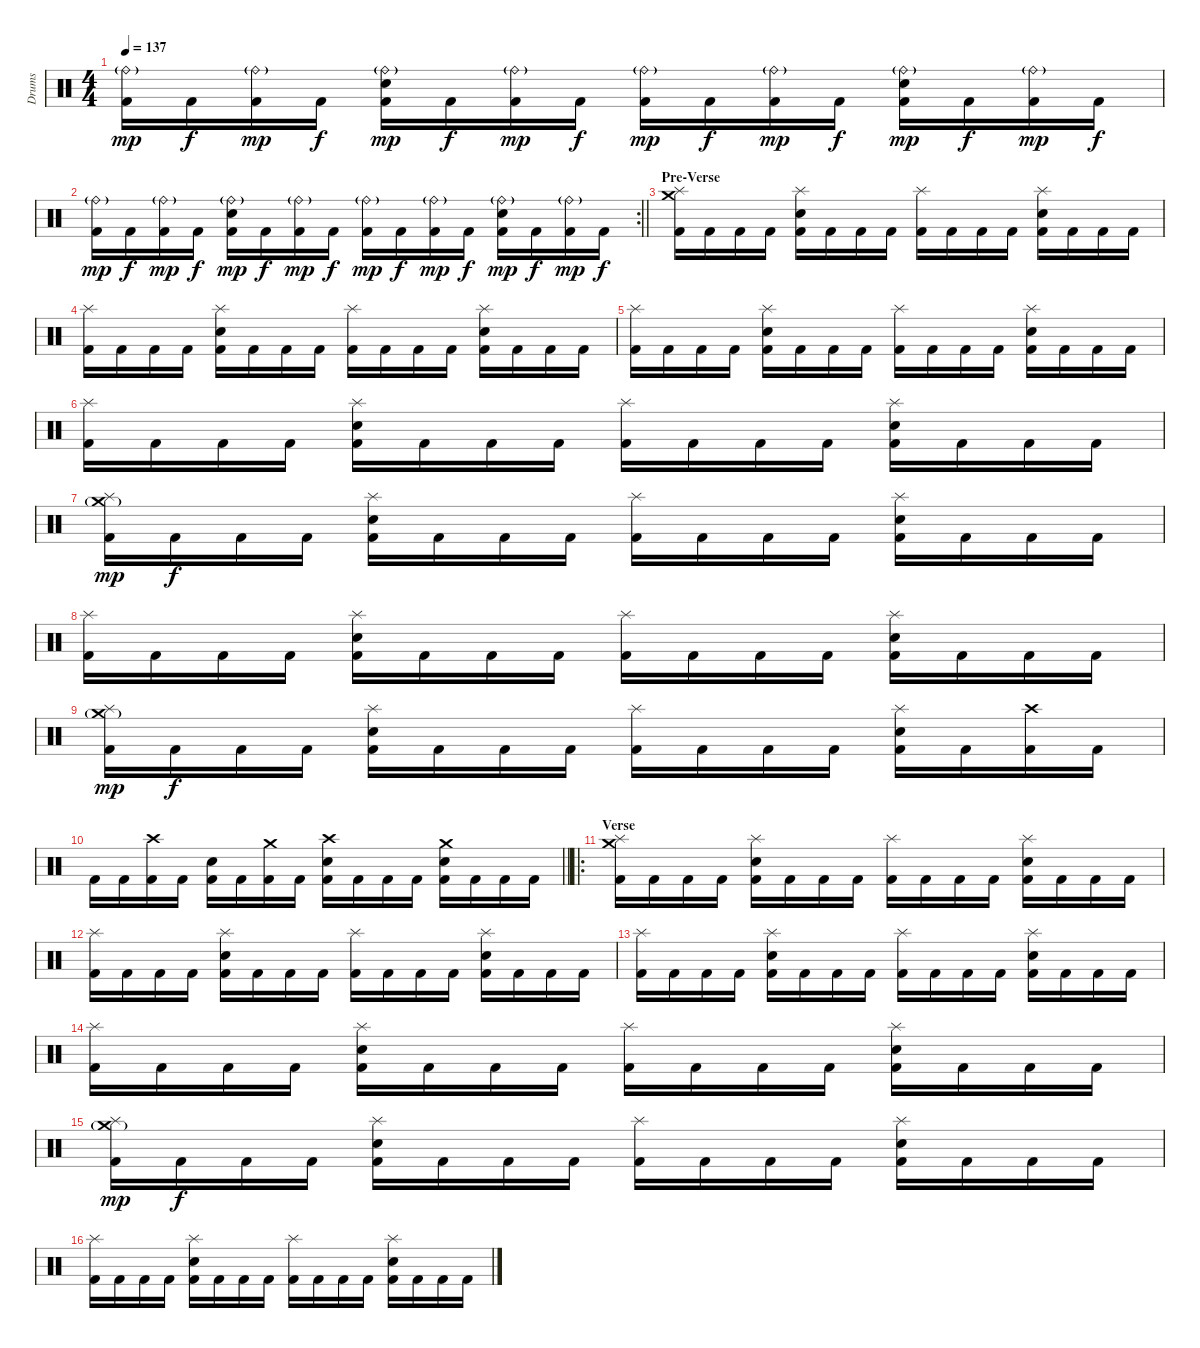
\track ("Drums" "Drums") {instrument percussion}
\staff {score}
\articulation defaults
\ts (4 4)
\tempo 137
\clef neutral
\ks c
("Kick (hit) 2" "Ride (bell)"{g}).16{dy mp} "Kick (hit) 2".16{dy f} ("Kick (hit) 2" "Ride (bell)"{g}).16{dy mp} "Kick (hit) 2".16{dy f} ("Kick (hit) 2" "Snare (hit) 2" "Ride (bell)"{g}).16{dy mp} "Kick (hit) 2".16{dy f} ("Kick (hit) 2" "Ride (bell)"{g}).16{dy mp} "Kick (hit) 2".16{dy f} ("Kick (hit) 2" "Ride (bell)"{g}).16{dy mp} "Kick (hit) 2".16{dy f} ("Kick (hit) 2" "Ride (bell)"{g}).16{dy mp} "Kick (hit) 2".16{dy f} ("Kick (hit) 2" "Snare (hit) 2" "Ride (bell)"{g}).16{dy mp} "Kick (hit) 2".16{dy f} ("Kick (hit) 2" "Ride (bell)"{g}).16{dy mp} "Kick (hit) 2".16{dy f} |
\rc 2
\barLineRight lightlight
("Kick (hit) 2" "Ride (bell)"{g}).16{dy mp} "Kick (hit) 2".16{dy f} ("Kick (hit) 2" "Ride (bell)"{g}).16{dy mp} "Kick (hit) 2".16{dy f} ("Kick (hit) 2" "Snare (hit) 2" "Ride (bell)"{g}).16{dy mp} "Kick (hit) 2".16{dy f} ("Kick (hit) 2" "Ride (bell)"{g}).16{dy mp} "Kick (hit) 2".16{dy f} ("Kick (hit) 2" "Ride (bell)"{g}).16{dy mp} "Kick (hit) 2".16{dy f} ("Kick (hit) 2" "Ride (bell)"{g}).16{dy mp} "Kick (hit) 2".16{dy f} ("Kick (hit) 2" "Snare (hit) 2" "Ride (bell)"{g}).16{dy mp} "Kick (hit) 2".16{dy f} ("Kick (hit) 2" "Ride (bell)"{g}).16{dy mp} "Kick (hit) 2".16{dy f} |
\section ("" "Pre-Verse")
("Kick (hit) 2" "Splash (hit)" "Crash medium (hit)").16 "Kick (hit) 2".16 "Kick (hit) 2".16 "Kick (hit) 2".16 ("Kick (hit) 2" "Snare (hit) 2" "Splash (hit)").16 "Kick (hit) 2".16 "Kick (hit) 2".16 "Kick (hit) 2".16 ("Kick (hit) 2" "Splash (hit)").16 "Kick (hit) 2".16 "Kick (hit) 2".16 "Kick (hit) 2".16 ("Kick (hit) 2" "Snare (hit) 2" "Splash (hit)").16 "Kick (hit) 2".16 "Kick (hit) 2".16 "Kick (hit) 2".16 |
("Kick (hit) 2" "Splash (hit)").16 "Kick (hit) 2".16 "Kick (hit) 2".16 "Kick (hit) 2".16 ("Kick (hit) 2" "Snare (hit) 2" "Splash (hit)").16 "Kick (hit) 2".16 "Kick (hit) 2".16 "Kick (hit) 2".16 ("Kick (hit) 2" "Splash (hit)").16 "Kick (hit) 2".16 "Kick (hit) 2".16 "Kick (hit) 2".16 ("Kick (hit) 2" "Snare (hit) 2" "Splash (hit)").16 "Kick (hit) 2".16 "Kick (hit) 2".16 "Kick (hit) 2".16 |
("Kick (hit) 2" "Splash (hit)").16 "Kick (hit) 2".16 "Kick (hit) 2".16 "Kick (hit) 2".16 ("Kick (hit) 2" "Snare (hit) 2" "Splash (hit)").16 "Kick (hit) 2".16 "Kick (hit) 2".16 "Kick (hit) 2".16 ("Kick (hit) 2" "Splash (hit)").16 "Kick (hit) 2".16 "Kick (hit) 2".16 "Kick (hit) 2".16 ("Kick (hit) 2" "Snare (hit) 2" "Splash (hit)").16 "Kick (hit) 2".16 "Kick (hit) 2".16 "Kick (hit) 2".16 |
("Kick (hit) 2" "Splash (hit)").16 "Kick (hit) 2".16 "Kick (hit) 2".16 "Kick (hit) 2".16 ("Kick (hit) 2" "Snare (hit) 2" "Splash (hit)").16 "Kick (hit) 2".16 "Kick (hit) 2".16 "Kick (hit) 2".16 ("Kick (hit) 2" "Splash (hit)").16 "Kick (hit) 2".16 "Kick (hit) 2".16 "Kick (hit) 2".16 ("Kick (hit) 2" "Snare (hit) 2" "Splash (hit)").16 "Kick (hit) 2".16 "Kick (hit) 2".16 "Kick (hit) 2".16 |
("Kick (hit) 2" "Splash (hit)" "Crash medium (hit)"{g}).16{dy mp} "Kick (hit) 2".16{dy f} "Kick (hit) 2".16 "Kick (hit) 2".16 ("Kick (hit) 2" "Snare (hit) 2" "Splash (hit)").16 "Kick (hit) 2".16 "Kick (hit) 2".16 "Kick (hit) 2".16 ("Kick (hit) 2" "Splash (hit)").16 "Kick (hit) 2".16 "Kick (hit) 2".16 "Kick (hit) 2".16 ("Kick (hit) 2" "Snare (hit) 2" "Splash (hit)").16 "Kick (hit) 2".16 "Kick (hit) 2".16 "Kick (hit) 2".16 |
("Kick (hit) 2" "Splash (hit)").16 "Kick (hit) 2".16 "Kick (hit) 2".16 "Kick (hit) 2".16 ("Kick (hit) 2" "Snare (hit) 2" "Splash (hit)").16 "Kick (hit) 2".16 "Kick (hit) 2".16 "Kick (hit) 2".16 ("Kick (hit) 2" "Splash (hit)").16 "Kick (hit) 2".16 "Kick (hit) 2".16 "Kick (hit) 2".16 ("Kick (hit) 2" "Snare (hit) 2" "Splash (hit)").16 "Kick (hit) 2".16 "Kick (hit) 2".16 "Kick (hit) 2".16 |
("Kick (hit) 2" "Splash (hit)" "Crash medium (hit)"{g}).16{dy mp} "Kick (hit) 2".16{dy f} "Kick (hit) 2".16 "Kick (hit) 2".16 ("Kick (hit) 2" "Snare (hit) 2" "Splash (hit)").16 "Kick (hit) 2".16 "Kick (hit) 2".16 "Kick (hit) 2".16 ("Kick (hit) 2" "Splash (hit)").16 "Kick (hit) 2".16 "Kick (hit) 2".16 "Kick (hit) 2".16 ("Kick (hit) 2" "Snare (hit) 2" "Splash (hit)").16 "Kick (hit) 2".16 ("Kick (hit) 2" "Crash high (hit)").16 "Kick (hit) 2".16 |
\barLineRight lightlight "Kick (hit) 2".16 "Kick (hit) 2".16
("Kick (hit) 2" "Crash high (hit)").16 "Kick (hit) 2".16 ("Kick (hit) 2" "Snare (hit) 2").16 "Kick (hit) 2".16 ("Kick (hit) 2" "Crash medium (hit)").16 "Kick (hit) 2".16 ("Kick (hit) 2" "Snare (hit) 2" "Crash high (hit)").16 "Kick (hit) 2".16 "Kick (hit) 2".16 "Kick (hit) 2".16 ("Kick (hit) 2" "Snare (hit) 2" "Crash medium (hit)").16 "Kick (hit) 2".16 "Kick (hit) 2".16 "Kick (hit) 2".16 |
\ro
\section ("" "Verse")
("Kick (hit) 2" "Splash (hit)" "Crash medium (hit)").16 "Kick (hit) 2".16 "Kick (hit) 2".16 "Kick (hit) 2".16 ("Kick (hit) 2" "Snare (hit) 2" "Splash (hit)").16 "Kick (hit) 2".16 "Kick (hit) 2".16 "Kick (hit) 2".16 ("Kick (hit) 2" "Splash (hit)").16 "Kick (hit) 2".16 "Kick (hit) 2".16 "Kick (hit) 2".16 ("Kick (hit) 2" "Snare (hit) 2" "Splash (hit)").16 "Kick (hit) 2".16 "Kick (hit) 2".16 "Kick (hit) 2".16 |
("Kick (hit) 2" "Splash (hit)").16 "Kick (hit) 2".16 "Kick (hit) 2".16 "Kick (hit) 2".16 ("Kick (hit) 2" "Snare (hit) 2" "Splash (hit)").16 "Kick (hit) 2".16 "Kick (hit) 2".16 "Kick (hit) 2".16 ("Kick (hit) 2" "Splash (hit)").16 "Kick (hit) 2".16 "Kick (hit) 2".16 "Kick (hit) 2".16 ("Kick (hit) 2" "Snare (hit) 2" "Splash (hit)").16 "Kick (hit) 2".16 "Kick (hit) 2".16 "Kick (hit) 2".16 |
("Kick (hit) 2" "Splash (hit)").16 "Kick (hit) 2".16 "Kick (hit) 2".16 "Kick (hit) 2".16 ("Kick (hit) 2" "Snare (hit) 2" "Splash (hit)").16 "Kick (hit) 2".16 "Kick (hit) 2".16 "Kick (hit) 2".16 ("Kick (hit) 2" "Splash (hit)").16 "Kick (hit) 2".16 "Kick (hit) 2".16 "Kick (hit) 2".16 ("Kick (hit) 2" "Snare (hit) 2" "Splash (hit)").16 "Kick (hit) 2".16 "Kick (hit) 2".16 "Kick (hit) 2".16 |
("Kick (hit) 2" "Splash (hit)").16 "Kick (hit) 2".16 "Kick (hit) 2".16 "Kick (hit) 2".16 ("Kick (hit) 2" "Snare (hit) 2" "Splash (hit)").16 "Kick (hit) 2".16 "Kick (hit) 2".16 "Kick (hit) 2".16 ("Kick (hit) 2" "Splash (hit)").16 "Kick (hit) 2".16 "Kick (hit) 2".16 "Kick (hit) 2".16 ("Kick (hit) 2" "Snare (hit) 2" "Splash (hit)").16 "Kick (hit) 2".16 "Kick (hit) 2".16 "Kick (hit) 2".16 |
("Kick (hit) 2" "Splash (hit)" "Crash medium (hit)"{g}).16{dy mp} "Kick (hit) 2".16{dy f} "Kick (hit) 2".16 "Kick (hit) 2".16 ("Kick (hit) 2" "Snare (hit) 2" "Splash (hit)").16 "Kick (hit) 2".16 "Kick (hit) 2".16 "Kick (hit) 2".16 ("Kick (hit) 2" "Splash (hit)").16 "Kick (hit) 2".16 "Kick (hit) 2".16 "Kick (hit) 2".16 ("Kick (hit) 2" "Snare (hit) 2" "Splash (hit)").16 "Kick (hit) 2".16 "Kick (hit) 2".16 "Kick (hit) 2".16 |
("Kick (hit) 2" "Splash (hit)").16 "Kick (hit) 2".16 "Kick (hit) 2".16 "Kick (hit) 2".16 ("Kick (hit) 2" "Snare (hit) 2" "Splash (hit)").16 "Kick (hit) 2".16 "Kick (hit) 2".16 "Kick (hit) 2".16 ("Kick (hit) 2" "Splash (hit)").16 "Kick (hit) 2".16 "Kick (hit) 2".16 "Kick (hit) 2".16 ("Kick (hit) 2" "Snare (hit) 2" "Splash (hit)").16 "Kick (hit) 2".16 "Kick (hit) 2".16 "Kick (hit) 2".16
